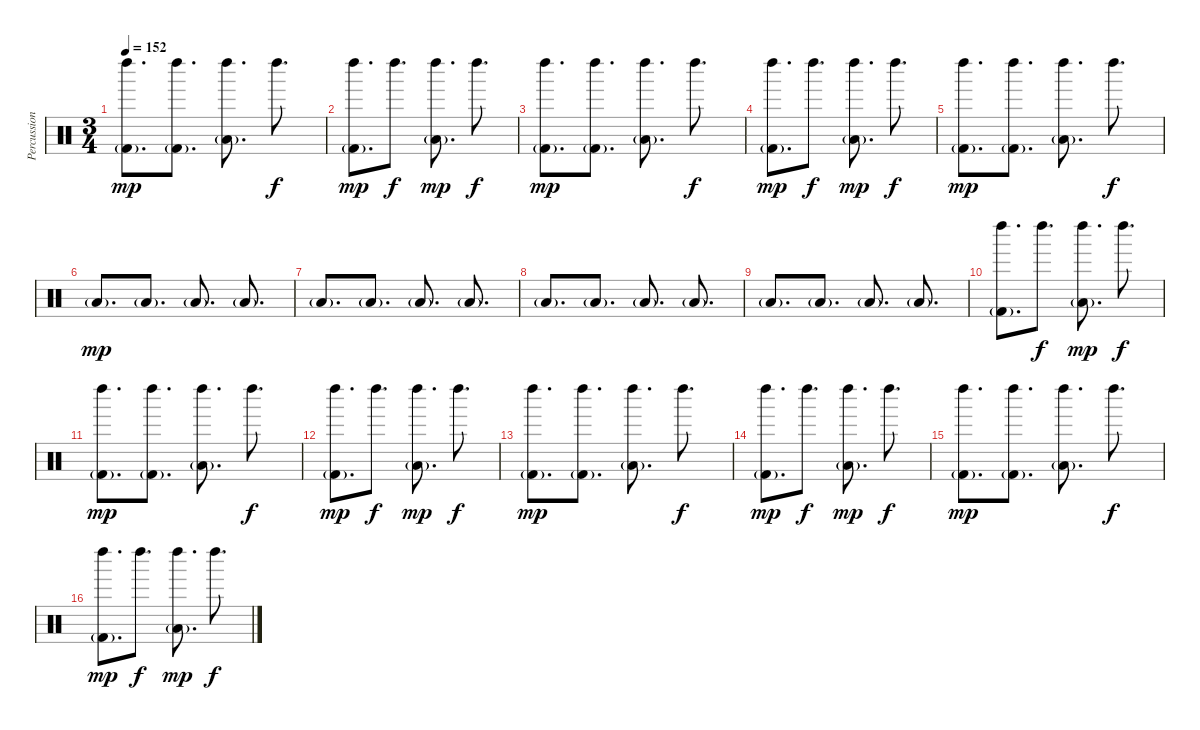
\track ("Percussion" "Percussion") {instrument percussion}
\staff {score}
\articulation defaults
\ts (3 4)
\tempo 152
\clef neutral
\ks c
("Left Maraca (hit)" "Kick (hit) 2"{g}).8{d dy mp} ("Left Maraca (hit)" "Kick (hit) 2"{g}).8{d} ("Left Maraca (hit)" "Low Tom (hit)"{g}).8{d} "Left Maraca (hit)".8{d dy f} |
("Left Maraca (hit)" "Kick (hit) 2"{g}).8{d dy mp} "Left Maraca (hit)".8{d dy f} ("Left Maraca (hit)" "Low Tom (hit)"{g}).8{d dy mp} "Left Maraca (hit)".8{d dy f} |
("Left Maraca (hit)" "Kick (hit) 2"{g}).8{d dy mp} ("Left Maraca (hit)" "Kick (hit) 2"{g}).8{d} ("Left Maraca (hit)" "Low Tom (hit)"{g}).8{d} "Left Maraca (hit)".8{d dy f} |
("Left Maraca (hit)" "Kick (hit) 2"{g}).8{d dy mp} "Left Maraca (hit)".8{d dy f} ("Left Maraca (hit)" "Low Tom (hit)"{g}).8{d dy mp} "Left Maraca (hit)".8{d dy f} |
("Left Maraca (hit)" "Kick (hit) 2"{g}).8{d dy mp} ("Left Maraca (hit)" "Kick (hit) 2"{g}).8{d} ("Left Maraca (hit)" "Low Tom (hit)"{g}).8{d} "Left Maraca (hit)".8{d dy f} |
"Low Floor Tom (hit)"{g}.8{d dy mp} "Low Floor Tom (hit)"{g}.8{d} "Low Floor Tom (hit)"{g}.8{d} "Low Floor Tom (hit)"{g}.8{d} |
"Low Floor Tom (hit)"{g}.8{d} "Low Floor Tom (hit)"{g}.8{d} "Low Floor Tom (hit)"{g}.8{d} "Low Floor Tom (hit)"{g}.8{d} |
"Low Floor Tom (hit)"{g}.8{d} "Low Floor Tom (hit)"{g}.8{d} "Low Floor Tom (hit)"{g}.8{d} "Low Floor Tom (hit)"{g}.8{d} |
"Low Floor Tom (hit)"{g}.8{d} "Low Floor Tom (hit)"{g}.8{d} "Low Floor Tom (hit)"{g}.8{d} "Low Floor Tom (hit)"{g}.8{d} |
("Left Maraca (hit)" "Kick (hit) 2"{g}).8{d} "Left Maraca (hit)".8{d dy f} ("Left Maraca (hit)" "Low Tom (hit)"{g}).8{d dy mp} "Left Maraca (hit)".8{d dy f} |
("Left Maraca (hit)" "Kick (hit) 2"{g}).8{d dy mp} ("Left Maraca (hit)" "Kick (hit) 2"{g}).8{d} ("Left Maraca (hit)" "Low Tom (hit)"{g}).8{d} "Left Maraca (hit)".8{d dy f} |
("Left Maraca (hit)" "Kick (hit) 2"{g}).8{d dy mp} "Left Maraca (hit)".8{d dy f} ("Left Maraca (hit)" "Low Tom (hit)"{g}).8{d dy mp} "Left Maraca (hit)".8{d dy f} |
("Left Maraca (hit)" "Kick (hit) 2"{g}).8{d dy mp} ("Left Maraca (hit)" "Kick (hit) 2"{g}).8{d} ("Left Maraca (hit)" "Low Tom (hit)"{g}).8{d} "Left Maraca (hit)".8{d dy f} |
("Left Maraca (hit)" "Kick (hit) 2"{g}).8{d dy mp} "Left Maraca (hit)".8{d dy f} ("Left Maraca (hit)" "Low Tom (hit)"{g}).8{d dy mp} "Left Maraca (hit)".8{d dy f} |
("Left Maraca (hit)" "Kick (hit) 2"{g}).8{d dy mp} ("Left Maraca (hit)" "Kick (hit) 2"{g}).8{d} ("Left Maraca (hit)" "Low Tom (hit)"{g}).8{d} "Left Maraca (hit)".8{d dy f} |
("Left Maraca (hit)" "Kick (hit) 2"{g}).8{d dy mp} "Left Maraca (hit)".8{d dy f} ("Left Maraca (hit)" "Low Tom (hit)"{g}).8{d dy mp} "Left Maraca (hit)".8{d dy f}
